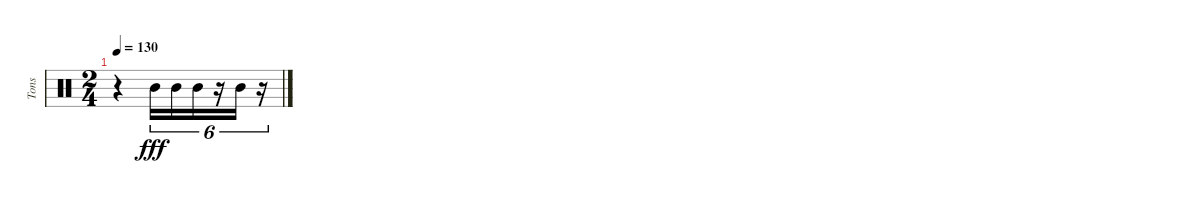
\track ("Tons" "Tons") {instrument percussion}
\staff {score}
\articulation defaults
\ts (2 4)
\tempo 130
\clef neutral
\ks c
r.4{dy fff} "Mid Tom (hit)".16{tu (6 4)} "Mid Tom (hit)".16{tu (6 4)} "Mid Tom (hit)".16{tu (6 4)} r.16{tu (6 4)} "Mid Tom (hit)".16{tu (6 4)} r.16{tu (6 4)}
